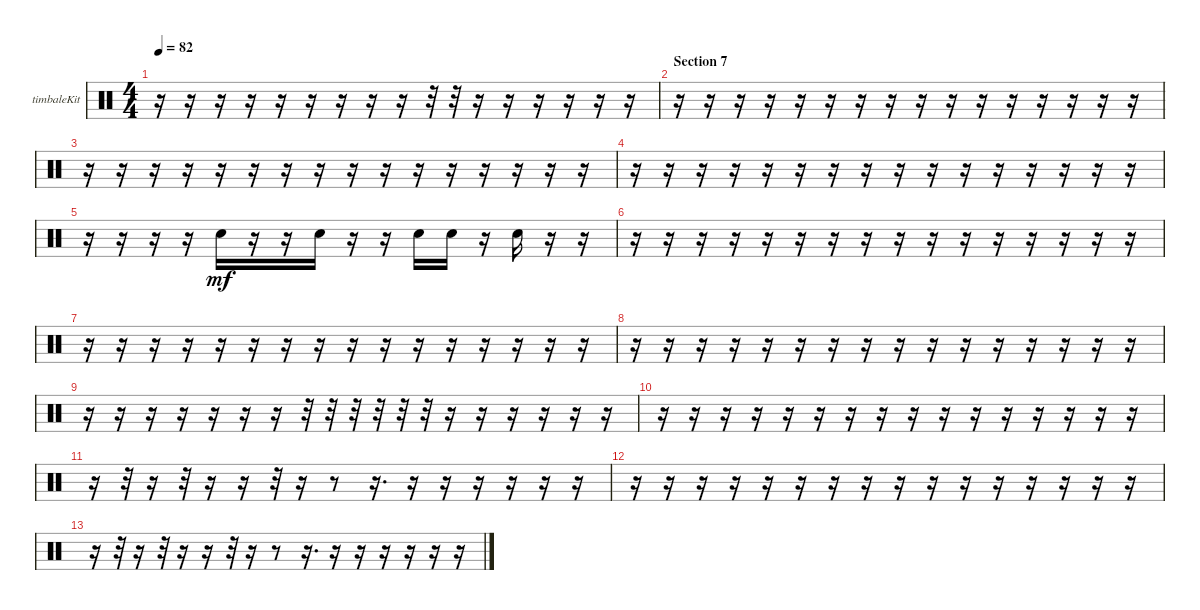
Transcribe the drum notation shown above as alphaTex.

\bracketExtendMode groupsimilarinstruments
\firstSystemTrackNameOrientation horizontal
\otherSystemsTrackNameOrientation horizontal
\track ("Timbale" "timbaleKit") {instrument percussion}
\staff {score}
\articulation defaults
\ts (4 4)
\tempo 82
\clef neutral
\ks aminor
r.16{dy mf} r.16 r.16 r.16 r.16 r.16 r.16 r.16 r.16 r.32 r.32 r.16 r.16 r.16 r.16 r.16 r.16 |
\section ("" "Section 7")
r.16 r.16 r.16 r.16 r.16 r.16 r.16 r.16 r.16 r.16 r.16 r.16 r.16 r.16 r.16 r.16 |
r.16 r.16 r.16 r.16 r.16 r.16 r.16 r.16 r.16 r.16 r.16 r.16 r.16 r.16 r.16 r.16 |
r.16 r.16 r.16 r.16 r.16 r.16 r.16 r.16 r.16 r.16 r.16 r.16 r.16 r.16 r.16 r.16 |
r.16 r.16 r.16 r.16 "Snare (hit) 2".16 r.16 r.16 "Snare (hit) 2".16 r.16 r.16 "Snare (hit) 2".16 "Snare (hit) 2".16 r.16 "Snare (hit) 2".16 r.16 r.16 |
r.16 r.16 r.16 r.16 r.16 r.16 r.16 r.16 r.16 r.16 r.16 r.16 r.16 r.16 r.16 r.16 |
r.16 r.16 r.16 r.16 r.16 r.16 r.16 r.16 r.16 r.16 r.16 r.16 r.16 r.16 r.16 r.16 |
r.16 r.16 r.16 r.16 r.16 r.16 r.16 r.16 r.16 r.16 r.16 r.16 r.16 r.16 r.16 r.16 |
r.16 r.16 r.16 r.16 r.16 r.16 r.16 r.32 r.32 r.32 r.32 r.32 r.32 r.16 r.16 r.16 r.16 r.16 r.16 |
r.16 r.16 r.16 r.16 r.16 r.16 r.16 r.16 r.16 r.16 r.16 r.16 r.16 r.16 r.16 r.16 |
r.16 r.32 r.16 r.32 r.16 r.16 r.32 r.16 r.8 r.16{d} r.16 r.16 r.16 r.16 r.16 r.16 |
r.16 r.16 r.16 r.16 r.16 r.16 r.16 r.16 r.16 r.16 r.16 r.16 r.16 r.16 r.16 r.16 |
r.16 r.32 r.16 r.32 r.16 r.16 r.32 r.16 r.8 r.16{d} r.16 r.16 r.16 r.16 r.16 r.16
